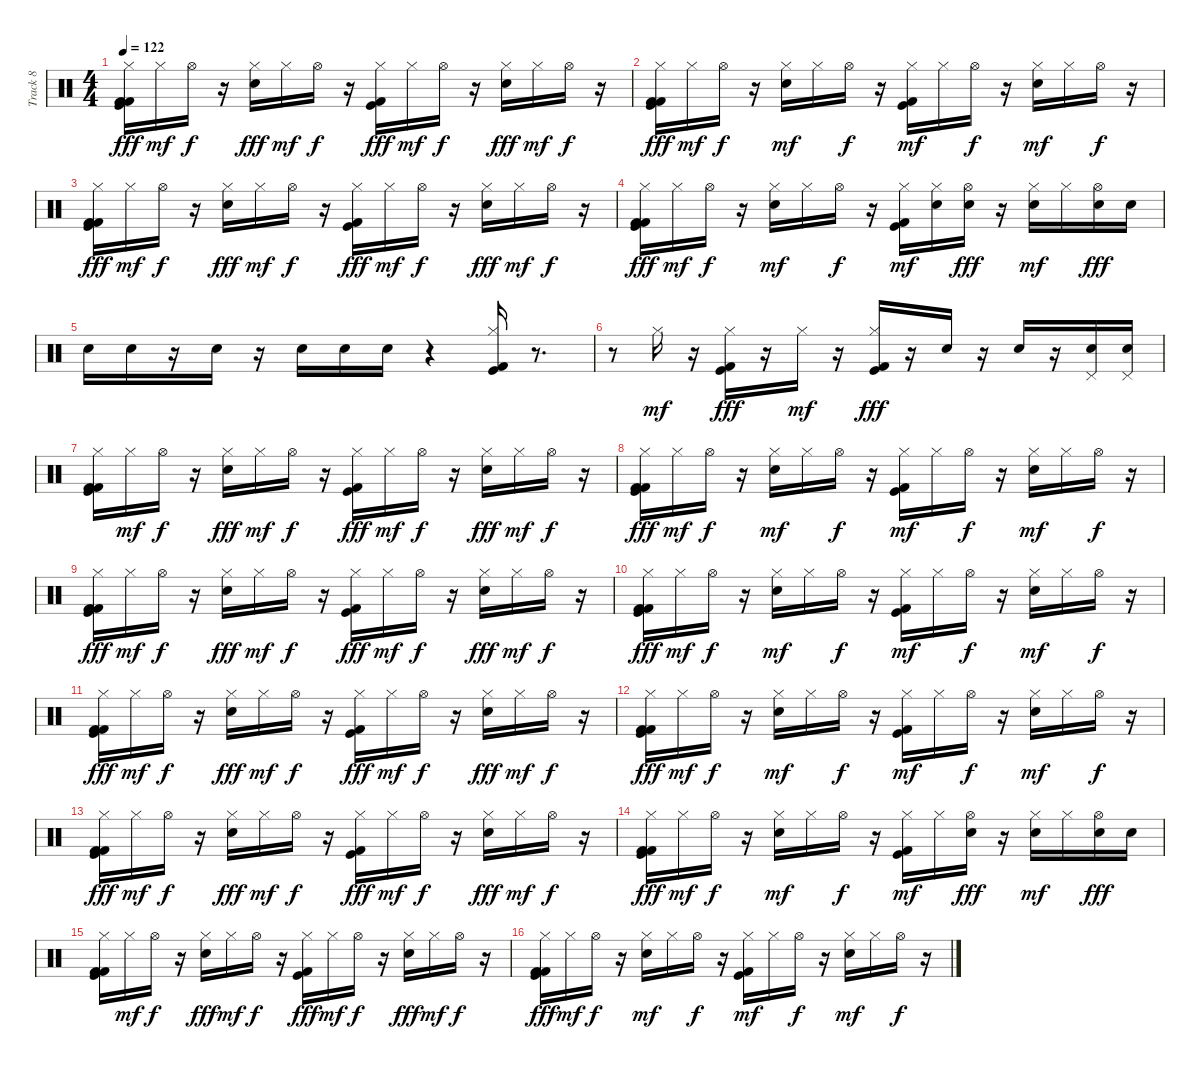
\track ("Track 8" "Track 8") {instrument percussion}
\staff {score}
\articulation defaults
\ts (4 4)
\tempo 122
\clef neutral
\ks c
("Kick (hit) 2" "Hi-Hat (closed)" "Kick (hit) 2" "Kick (hit)").16{dy fff} "Hi-Hat (closed)".16{dy mf} "Hi-Hat (open)".16{dy f} r.16 ("Hi-Hat (closed)" "Electric Snare (hit)").16{dy fff} "Hi-Hat (closed)".16{dy mf} "Hi-Hat (open)".16{dy f} r.16 ("Hi-Hat (closed)" "Kick (hit)" "Kick (hit) 2").16{dy fff} "Hi-Hat (closed)".16{dy mf} "Hi-Hat (open)".16{dy f} r.16 ("Hi-Hat (closed)" "Electric Snare (hit)").16{dy fff} "Hi-Hat (closed)".16{dy mf} "Hi-Hat (open)".16{dy f} r.16 |
("Kick (hit) 2" "Hi-Hat (closed)" "Kick (hit) 2" "Kick (hit)").16{dy fff} "Hi-Hat (closed)".16{dy mf} "Hi-Hat (open)".16{dy f} r.16 ("Electric Snare (hit)" "Hi-Hat (closed)").16{dy mf} "Hi-Hat (closed)".16 "Hi-Hat (open)".16{dy f} r.16 ("Kick (hit) 2" "Kick (hit)" "Hi-Hat (closed)").16{dy mf} "Hi-Hat (closed)".16 "Hi-Hat (open)".16{dy f} r.16 ("Electric Snare (hit)" "Hi-Hat (closed)").16{dy mf} "Hi-Hat (closed)".16 "Hi-Hat (open)".16{dy f} r.16 |
("Kick (hit) 2" "Hi-Hat (closed)" "Kick (hit) 2" "Kick (hit)").16{dy fff} "Hi-Hat (closed)".16{dy mf} "Hi-Hat (open)".16{dy f} r.16 ("Hi-Hat (closed)" "Electric Snare (hit)").16{dy fff} "Hi-Hat (closed)".16{dy mf} "Hi-Hat (open)".16{dy f} r.16 ("Hi-Hat (closed)" "Kick (hit)" "Kick (hit) 2").16{dy fff} "Hi-Hat (closed)".16{dy mf} "Hi-Hat (open)".16{dy f} r.16 ("Hi-Hat (closed)" "Electric Snare (hit)").16{dy fff} "Hi-Hat (closed)".16{dy mf} "Hi-Hat (open)".16{dy f} r.16 |
("Kick (hit) 2" "Hi-Hat (closed)" "Kick (hit) 2" "Kick (hit)").16{dy fff} "Hi-Hat (closed)".16{dy mf} "Hi-Hat (open)".16{dy f} r.16 ("Electric Snare (hit)" "Hi-Hat (closed)").16{dy mf} "Hi-Hat (closed)".16 "Hi-Hat (open)".16{dy f} r.16 ("Kick (hit) 2" "Kick (hit)" "Hi-Hat (closed)").16{dy mf} ("Electric Snare (hit)" "Hi-Hat (closed)").16 ("Electric Snare (hit)" "Hi-Hat (open)").16{dy fff} r.16 ("Electric Snare (hit)" "Hi-Hat (closed)").16{dy mf} "Hi-Hat (closed)".16 ("Electric Snare (hit)" "Hi-Hat (open)").16{dy fff} "Electric Snare (hit)".16 |
"Electric Snare (hit)".16 "Electric Snare (hit)".16 r.16 "Electric Snare (hit)".16 r.16 "Electric Snare (hit)".16 "Electric Snare (hit)".16 "Electric Snare (hit)".16 r.4 ("Hi-Hat (closed)" "Kick (hit) 2" "Kick (hit)").16 r.8{d} |
r.8 "Hi-Hat (closed)".16{dy mf} r.16 ("Hi-Hat (closed)" "Kick (hit)" "Kick (hit) 2").16{dy fff} r.16 "Hi-Hat (closed)".16{dy mf} r.16 ("Hi-Hat (closed)" "Kick (hit)" "Kick (hit) 2").16{dy fff} r.16 "Electric Snare (hit)".16 r.16 "Electric Snare (hit)".16 r.16 ("Pedal Hi-Hat (hit)" "Electric Snare (hit)").16 ("Pedal Hi-Hat (hit)" "Electric Snare (hit)").16 |
("Kick (hit) 2" "Hi-Hat (closed)" "Kick (hit)" "Kick (hit) 2").16 "Hi-Hat (closed)".16{dy mf} "Hi-Hat (open)".16{dy f} r.16 ("Hi-Hat (closed)" "Electric Snare (hit)").16{dy fff} "Hi-Hat (closed)".16{dy mf} "Hi-Hat (open)".16{dy f} r.16 ("Hi-Hat (closed)" "Kick (hit)" "Kick (hit) 2").16{dy fff} "Hi-Hat (closed)".16{dy mf} "Hi-Hat (open)".16{dy f} r.16 ("Hi-Hat (closed)" "Electric Snare (hit)").16{dy fff} "Hi-Hat (closed)".16{dy mf} "Hi-Hat (open)".16{dy f} r.16 |
("Kick (hit) 2" "Hi-Hat (closed)" "Kick (hit) 2" "Kick (hit)").16{dy fff} "Hi-Hat (closed)".16{dy mf} "Hi-Hat (open)".16{dy f} r.16 ("Electric Snare (hit)" "Hi-Hat (closed)").16{dy mf} "Hi-Hat (closed)".16 "Hi-Hat (open)".16{dy f} r.16 ("Kick (hit) 2" "Kick (hit)" "Hi-Hat (closed)").16{dy mf} "Hi-Hat (closed)".16 "Hi-Hat (open)".16{dy f} r.16 ("Electric Snare (hit)" "Hi-Hat (closed)").16{dy mf} "Hi-Hat (closed)".16 "Hi-Hat (open)".16{dy f} r.16 |
("Kick (hit) 2" "Hi-Hat (closed)" "Kick (hit) 2" "Kick (hit)").16{dy fff} "Hi-Hat (closed)".16{dy mf} "Hi-Hat (open)".16{dy f} r.16 ("Hi-Hat (closed)" "Electric Snare (hit)").16{dy fff} "Hi-Hat (closed)".16{dy mf} "Hi-Hat (open)".16{dy f} r.16 ("Hi-Hat (closed)" "Kick (hit)" "Kick (hit) 2").16{dy fff} "Hi-Hat (closed)".16{dy mf} "Hi-Hat (open)".16{dy f} r.16 ("Hi-Hat (closed)" "Electric Snare (hit)").16{dy fff} "Hi-Hat (closed)".16{dy mf} "Hi-Hat (open)".16{dy f} r.16 |
("Kick (hit) 2" "Hi-Hat (closed)" "Kick (hit) 2" "Kick (hit)").16{dy fff} "Hi-Hat (closed)".16{dy mf} "Hi-Hat (open)".16{dy f} r.16 ("Electric Snare (hit)" "Hi-Hat (closed)").16{dy mf} "Hi-Hat (closed)".16 "Hi-Hat (open)".16{dy f} r.16 ("Kick (hit) 2" "Kick (hit)" "Hi-Hat (closed)").16{dy mf} "Hi-Hat (closed)".16 "Hi-Hat (open)".16{dy f} r.16 ("Electric Snare (hit)" "Hi-Hat (closed)").16{dy mf} "Hi-Hat (closed)".16 "Hi-Hat (open)".16{dy f} r.16 |
("Kick (hit) 2" "Hi-Hat (closed)" "Kick (hit) 2" "Kick (hit)").16{dy fff} "Hi-Hat (closed)".16{dy mf} "Hi-Hat (open)".16{dy f} r.16 ("Hi-Hat (closed)" "Electric Snare (hit)").16{dy fff} "Hi-Hat (closed)".16{dy mf} "Hi-Hat (open)".16{dy f} r.16 ("Hi-Hat (closed)" "Kick (hit)" "Kick (hit) 2").16{dy fff} "Hi-Hat (closed)".16{dy mf} "Hi-Hat (open)".16{dy f} r.16 ("Hi-Hat (closed)" "Electric Snare (hit)").16{dy fff} "Hi-Hat (closed)".16{dy mf} "Hi-Hat (open)".16{dy f} r.16 |
("Kick (hit) 2" "Hi-Hat (closed)" "Kick (hit) 2" "Kick (hit)").16{dy fff} "Hi-Hat (closed)".16{dy mf} "Hi-Hat (open)".16{dy f} r.16 ("Electric Snare (hit)" "Hi-Hat (closed)").16{dy mf} "Hi-Hat (closed)".16 "Hi-Hat (open)".16{dy f} r.16 ("Kick (hit) 2" "Kick (hit)" "Hi-Hat (closed)").16{dy mf} "Hi-Hat (closed)".16 "Hi-Hat (open)".16{dy f} r.16 ("Electric Snare (hit)" "Hi-Hat (closed)").16{dy mf} "Hi-Hat (closed)".16 "Hi-Hat (open)".16{dy f} r.16 |
("Kick (hit) 2" "Hi-Hat (closed)" "Kick (hit) 2" "Kick (hit)").16{dy fff} "Hi-Hat (closed)".16{dy mf} "Hi-Hat (open)".16{dy f} r.16 ("Hi-Hat (closed)" "Electric Snare (hit)").16{dy fff} "Hi-Hat (closed)".16{dy mf} "Hi-Hat (open)".16{dy f} r.16 ("Hi-Hat (closed)" "Kick (hit)" "Kick (hit) 2").16{dy fff} "Hi-Hat (closed)".16{dy mf} "Hi-Hat (open)".16{dy f} r.16 ("Hi-Hat (closed)" "Electric Snare (hit)").16{dy fff} "Hi-Hat (closed)".16{dy mf} "Hi-Hat (open)".16{dy f} r.16 |
("Kick (hit) 2" "Hi-Hat (closed)" "Kick (hit) 2" "Kick (hit)").16{dy fff} "Hi-Hat (closed)".16{dy mf} "Hi-Hat (open)".16{dy f} r.16 ("Electric Snare (hit)" "Hi-Hat (closed)").16{dy mf} "Hi-Hat (closed)".16 "Hi-Hat (open)".16{dy f} r.16 ("Kick (hit) 2" "Kick (hit)" "Hi-Hat (closed)").16{dy mf} "Hi-Hat (closed)".16 ("Electric Snare (hit)" "Hi-Hat (open)").16{dy fff} r.16 ("Electric Snare (hit)" "Hi-Hat (closed)").16{dy mf} "Hi-Hat (closed)".16 ("Electric Snare (hit)" "Hi-Hat (open)").16{dy fff} "Electric Snare (hit)".16 |
("Kick (hit) 2" "Hi-Hat (closed)" "Kick (hit)" "Kick (hit) 2").16 "Hi-Hat (closed)".16{dy mf} "Hi-Hat (open)".16{dy f} r.16 ("Hi-Hat (closed)" "Electric Snare (hit)").16{dy fff} "Hi-Hat (closed)".16{dy mf} "Hi-Hat (open)".16{dy f} r.16 ("Hi-Hat (closed)" "Kick (hit)" "Kick (hit) 2").16{dy fff} "Hi-Hat (closed)".16{dy mf} "Hi-Hat (open)".16{dy f} r.16 ("Hi-Hat (closed)" "Electric Snare (hit)").16{dy fff} "Hi-Hat (closed)".16{dy mf} "Hi-Hat (open)".16{dy f} r.16 |
("Kick (hit) 2" "Hi-Hat (closed)" "Kick (hit) 2" "Kick (hit)").16{dy fff} "Hi-Hat (closed)".16{dy mf} "Hi-Hat (open)".16{dy f} r.16 ("Electric Snare (hit)" "Hi-Hat (closed)").16{dy mf} "Hi-Hat (closed)".16 "Hi-Hat (open)".16{dy f} r.16 ("Kick (hit) 2" "Kick (hit)" "Hi-Hat (closed)").16{dy mf} "Hi-Hat (closed)".16 "Hi-Hat (open)".16{dy f} r.16 ("Electric Snare (hit)" "Hi-Hat (closed)").16{dy mf} "Hi-Hat (closed)".16 "Hi-Hat (open)".16{dy f} r.16
